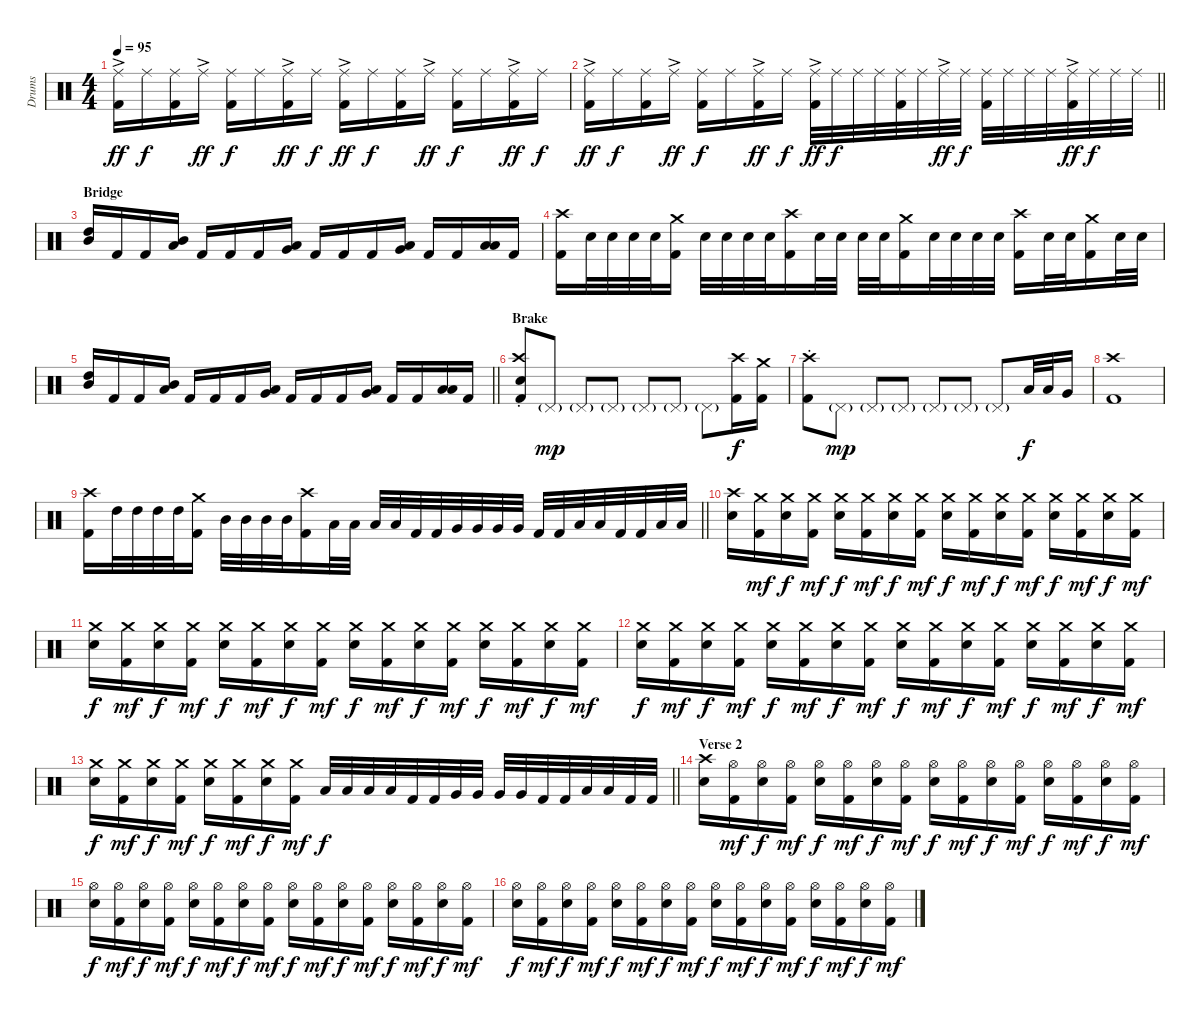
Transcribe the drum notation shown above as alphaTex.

\track ("Drums" "Drums") {instrument percussion}
\staff {score}
\articulation defaults
\ts (4 4)
\tempo 95
\clef neutral
\ks c
("Ride (middle)"{ac} "Kick (hit) 2").16{dy ff} "Ride (middle)".16{dy f} ("Ride (middle)" "Kick (hit) 2").16 "Ride (middle)"{ac}.16{dy ff} ("Ride (middle)" "Kick (hit) 2").16{dy f} "Ride (middle)".16 ("Ride (middle)"{ac} "Kick (hit) 2").16{dy ff} "Ride (middle)".16{dy f} ("Ride (middle)"{ac} "Kick (hit) 2").16{dy ff} "Ride (middle)".16{dy f} ("Ride (middle)" "Kick (hit) 2").16 "Ride (middle)"{ac}.16{dy ff} ("Ride (middle)" "Kick (hit) 2").16{dy f} "Ride (middle)".16 ("Ride (middle)"{ac} "Kick (hit) 2").16{dy ff} "Ride (middle)".16{dy f} |
\barLineRight lightlight
("Ride (middle)"{ac} "Kick (hit) 2").16{dy ff} "Ride (middle)".16{dy f} ("Ride (middle)" "Kick (hit) 2").16 "Ride (middle)"{ac}.16{dy ff} ("Ride (middle)" "Kick (hit) 2").16{dy f} "Ride (middle)".16 ("Ride (middle)"{ac} "Kick (hit) 2").16{dy ff} "Ride (middle)".16{dy f} ("Ride (middle)"{ac} "Kick (hit) 2").32{dy ff} "Ride (middle)".32{dy f} "Ride (middle)".32 "Ride (middle)".32 ("Ride (middle)" "Kick (hit) 2").32 "Ride (middle)".32 "Ride (middle)"{ac}.32{dy ff} "Ride (middle)".32{dy f} ("Ride (middle)" "Kick (hit) 2").32 "Ride (middle)".32 "Ride (middle)".32 "Ride (middle)".32 ("Ride (middle)"{ac} "Kick (hit) 2").32{dy ff} "Ride (middle)".32{dy f} "Ride (middle)".32 "Ride (middle)".32 |
\section ("" "Bridge")
("High Tom (hit)" "Mid Tom (hit)").16 "Kick (hit) 2".16 "Kick (hit) 2".16 ("Mid Tom (hit)" "Low Tom (hit)").16 "Kick (hit) 2".16 "Kick (hit) 2".16 "Kick (hit) 2".16 ("Low Tom (hit)" "Very Low Tom (hit)").16 "Kick (hit) 2".16 "Kick (hit) 2".16 "Kick (hit) 2".16 ("Very Low Tom (hit)" "Low Floor Tom (hit)").16 "Kick (hit) 2".16 "Kick (hit) 2".16 ("Low Floor Tom (hit)" "Low Floor Tom (hit)").16 "Kick (hit) 2".16 |
("Crash high (hit)" "Kick (hit) 2").16 "Snare (hit) 2".32 "Snare (hit) 2".32 "Snare (hit) 2".32 "Snare (hit) 2".32 ("Crash medium (hit)" "Kick (hit) 2").16 "Snare (hit) 2".32 "Snare (hit) 2".32 "Snare (hit) 2".32 "Snare (hit) 2".32 ("Crash high (hit)" "Kick (hit) 2").16 "Snare (hit) 2".32 "Snare (hit) 2".32 "Snare (hit) 2".32 "Snare (hit) 2".32 ("Crash medium (hit)" "Kick (hit) 2").16 "Snare (hit) 2".32 "Snare (hit) 2".32 "Snare (hit) 2".32 "Snare (hit) 2".32 ("Crash high (hit)" "Kick (hit) 2").16 "Snare (hit) 2".32 "Snare (hit) 2".32 ("Crash medium (hit)" "Kick (hit) 2").16 "Snare (hit) 2".32 "Snare (hit) 2".32 |
\barLineRight lightlight
("High Tom (hit)" "Mid Tom (hit)").16 "Kick (hit) 2".16 "Kick (hit) 2".16 ("Mid Tom (hit)" "Low Tom (hit)").16 "Kick (hit) 2".16 "Kick (hit) 2".16 "Kick (hit) 2".16 ("Low Tom (hit)" "Very Low Tom (hit)").16 "Kick (hit) 2".16 "Kick (hit) 2".16 "Kick (hit) 2".16 ("Very Low Tom (hit)" "Low Floor Tom (hit)").16 "Kick (hit) 2".16 "Kick (hit) 2".16 ("Low Floor Tom (hit)" "Low Floor Tom (hit)").16 "Kick (hit) 2".16 |
\section ("" "Brake")
("Crash high (hit)"{st} "Snare (hit) 2" "Kick (hit) 2").8 "Pedal Hi-Hat (hit)"{g}.8{dy mp} "Pedal Hi-Hat (hit)"{g}.8 "Pedal Hi-Hat (hit)"{g}.8 "Pedal Hi-Hat (hit)"{g}.8 "Pedal Hi-Hat (hit)"{g}.8 "Pedal Hi-Hat (hit)"{g}.8 ("Crash high (hit)" "Kick (hit) 2").16{dy f} ("Crash medium (hit)" "Kick (hit) 2").16 |
("Crash high (hit)"{st} "Kick (hit) 2").8 "Pedal Hi-Hat (hit)"{g}.8{dy mp} "Pedal Hi-Hat (hit)"{g}.8 "Pedal Hi-Hat (hit)"{g}.8 "Pedal Hi-Hat (hit)"{g}.8 "Pedal Hi-Hat (hit)"{g}.8 "Pedal Hi-Hat (hit)"{g}.8 "Low Tom (hit)".32{dy f} "Low Tom (hit)".32 "Very Low Tom (hit)".16 |
("Crash high (hit)" "Kick (hit) 2").1 |
\barLineRight lightlight
("Crash high (hit)" "Kick (hit) 2").16 "High Tom (hit)".32 "High Tom (hit)".32 "High Tom (hit)".32 "High Tom (hit)".32 ("Crash medium (hit)" "Kick (hit) 2").16 "Mid Tom (hit)".32 "Mid Tom (hit)".32 "Mid Tom (hit)".32 "Mid Tom (hit)".32 ("Crash high (hit)" "Kick (hit) 2").16 "Low Tom (hit)".32 "Low Tom (hit)".32 "Low Tom (hit)".32 "Low Tom (hit)".32 "Kick (hit) 2".32 "Kick (hit) 2".32 "Very Low Tom (hit)".32 "Very Low Tom (hit)".32 "Very Low Tom (hit)".32 "Very Low Tom (hit)".32 "Kick (hit) 2".32 "Kick (hit) 2".32 "Low Floor Tom (hit)".32 "Low Floor Tom (hit)".32 "Kick (hit) 2".32 "Kick (hit) 2".32 "Low Floor Tom (hit)".32 "Low Floor Tom (hit)".32 |
("Crash high (hit)" "Snare (hit) 2").16 ("Crash medium (hit)" "Kick (hit) 2").16{dy mf} ("Crash medium (hit)" "Snare (hit) 2").16{dy f} ("Crash medium (hit)" "Kick (hit) 2").16{dy mf} ("Crash medium (hit)" "Snare (hit) 2").16{dy f} ("Crash medium (hit)" "Kick (hit) 2").16{dy mf} ("Crash medium (hit)" "Snare (hit) 2").16{dy f} ("Crash medium (hit)" "Kick (hit) 2").16{dy mf} ("Crash medium (hit)" "Snare (hit) 2").16{dy f} ("Crash medium (hit)" "Kick (hit) 2").16{dy mf} ("Crash medium (hit)" "Snare (hit) 2").16{dy f} ("Crash medium (hit)" "Kick (hit) 2").16{dy mf} ("Crash medium (hit)" "Snare (hit) 2").16{dy f} ("Crash medium (hit)" "Kick (hit) 2").16{dy mf} ("Crash medium (hit)" "Snare (hit) 2").16{dy f} ("Crash medium (hit)" "Kick (hit) 2").16{dy mf} |
("Crash medium (hit)" "Snare (hit) 2").16{dy f} ("Crash medium (hit)" "Kick (hit) 2").16{dy mf} ("Crash medium (hit)" "Snare (hit) 2").16{dy f} ("Crash medium (hit)" "Kick (hit) 2").16{dy mf} ("Crash medium (hit)" "Snare (hit) 2").16{dy f} ("Crash medium (hit)" "Kick (hit) 2").16{dy mf} ("Crash medium (hit)" "Snare (hit) 2").16{dy f} ("Crash medium (hit)" "Kick (hit) 2").16{dy mf} ("Crash medium (hit)" "Snare (hit) 2").16{dy f} ("Crash medium (hit)" "Kick (hit) 2").16{dy mf} ("Crash medium (hit)" "Snare (hit) 2").16{dy f} ("Crash medium (hit)" "Kick (hit) 2").16{dy mf} ("Crash medium (hit)" "Snare (hit) 2").16{dy f} ("Crash medium (hit)" "Kick (hit) 2").16{dy mf} ("Crash medium (hit)" "Snare (hit) 2").16{dy f} ("Crash medium (hit)" "Kick (hit) 2").16{dy mf} |
("Crash medium (hit)" "Snare (hit) 2").16{dy f} ("Crash medium (hit)" "Kick (hit) 2").16{dy mf} ("Crash medium (hit)" "Snare (hit) 2").16{dy f} ("Crash medium (hit)" "Kick (hit) 2").16{dy mf} ("Crash medium (hit)" "Snare (hit) 2").16{dy f} ("Crash medium (hit)" "Kick (hit) 2").16{dy mf} ("Crash medium (hit)" "Snare (hit) 2").16{dy f} ("Crash medium (hit)" "Kick (hit) 2").16{dy mf} ("Crash medium (hit)" "Snare (hit) 2").16{dy f} ("Crash medium (hit)" "Kick (hit) 2").16{dy mf} ("Crash medium (hit)" "Snare (hit) 2").16{dy f} ("Crash medium (hit)" "Kick (hit) 2").16{dy mf} ("Crash medium (hit)" "Snare (hit) 2").16{dy f} ("Crash medium (hit)" "Kick (hit) 2").16{dy mf} ("Crash medium (hit)" "Snare (hit) 2").16{dy f} ("Crash medium (hit)" "Kick (hit) 2").16{dy mf} |
\barLineRight lightlight
("Crash medium (hit)" "Snare (hit) 2").16{dy f} ("Crash medium (hit)" "Kick (hit) 2").16{dy mf} ("Crash medium (hit)" "Snare (hit) 2").16{dy f} ("Crash medium (hit)" "Kick (hit) 2").16{dy mf} ("Crash medium (hit)" "Snare (hit) 2").16{dy f} ("Crash medium (hit)" "Kick (hit) 2").16{dy mf} ("Crash medium (hit)" "Snare (hit) 2").16{dy f} ("Crash medium (hit)" "Kick (hit) 2").16{dy mf} "Low Tom (hit)".32{dy f} "Low Tom (hit)".32 "Low Tom (hit)".32 "Low Tom (hit)".32 "Kick (hit) 2".32 "Kick (hit) 2".32 "Very Low Tom (hit)".32 "Very Low Tom (hit)".32 "Very Low Tom (hit)".32 "Very Low Tom (hit)".32 "Kick (hit) 2".32 "Kick (hit) 2".32 "Low Floor Tom (hit)".32 "Low Floor Tom (hit)".32 "Kick (hit) 2".32 "Kick (hit) 2".32 |
\section ("" "Verse 2")
("Crash high (hit)" "Snare (hit) 2").16 ("Hi-Hat (open)" "Kick (hit) 2").16{dy mf} ("Hi-Hat (open)" "Snare (hit) 2").16{dy f} ("Hi-Hat (open)" "Kick (hit) 2").16{dy mf} ("Hi-Hat (open)" "Snare (hit) 2").16{dy f} ("Hi-Hat (open)" "Kick (hit) 2").16{dy mf} ("Hi-Hat (open)" "Snare (hit) 2").16{dy f} ("Hi-Hat (open)" "Kick (hit) 2").16{dy mf} ("Hi-Hat (open)" "Snare (hit) 2").16{dy f} ("Hi-Hat (open)" "Kick (hit) 2").16{dy mf} ("Hi-Hat (open)" "Snare (hit) 2").16{dy f} ("Hi-Hat (open)" "Kick (hit) 2").16{dy mf} ("Hi-Hat (open)" "Snare (hit) 2").16{dy f} ("Hi-Hat (open)" "Kick (hit) 2").16{dy mf} ("Hi-Hat (open)" "Snare (hit) 2").16{dy f} ("Hi-Hat (open)" "Kick (hit) 2").16{dy mf} |
("Hi-Hat (open)" "Snare (hit) 2").16{dy f} ("Hi-Hat (open)" "Kick (hit) 2").16{dy mf} ("Hi-Hat (open)" "Snare (hit) 2").16{dy f} ("Hi-Hat (open)" "Kick (hit) 2").16{dy mf} ("Hi-Hat (open)" "Snare (hit) 2").16{dy f} ("Hi-Hat (open)" "Kick (hit) 2").16{dy mf} ("Hi-Hat (open)" "Snare (hit) 2").16{dy f} ("Hi-Hat (open)" "Kick (hit) 2").16{dy mf} ("Hi-Hat (open)" "Snare (hit) 2").16{dy f} ("Hi-Hat (open)" "Kick (hit) 2").16{dy mf} ("Hi-Hat (open)" "Snare (hit) 2").16{dy f} ("Hi-Hat (open)" "Kick (hit) 2").16{dy mf} ("Hi-Hat (open)" "Snare (hit) 2").16{dy f} ("Hi-Hat (open)" "Kick (hit) 2").16{dy mf} ("Hi-Hat (open)" "Snare (hit) 2").16{dy f} ("Hi-Hat (open)" "Kick (hit) 2").16{dy mf} |
("Hi-Hat (open)" "Snare (hit) 2").16{dy f} ("Hi-Hat (open)" "Kick (hit) 2").16{dy mf} ("Hi-Hat (open)" "Snare (hit) 2").16{dy f} ("Hi-Hat (open)" "Kick (hit) 2").16{dy mf} ("Hi-Hat (open)" "Snare (hit) 2").16{dy f} ("Hi-Hat (open)" "Kick (hit) 2").16{dy mf} ("Hi-Hat (open)" "Snare (hit) 2").16{dy f} ("Hi-Hat (open)" "Kick (hit) 2").16{dy mf} ("Hi-Hat (open)" "Snare (hit) 2").16{dy f} ("Hi-Hat (open)" "Kick (hit) 2").16{dy mf} ("Hi-Hat (open)" "Snare (hit) 2").16{dy f} ("Hi-Hat (open)" "Kick (hit) 2").16{dy mf} ("Hi-Hat (open)" "Snare (hit) 2").16{dy f} ("Hi-Hat (open)" "Kick (hit) 2").16{dy mf} ("Hi-Hat (open)" "Snare (hit) 2").16{dy f} ("Hi-Hat (open)" "Kick (hit) 2").16{dy mf}
